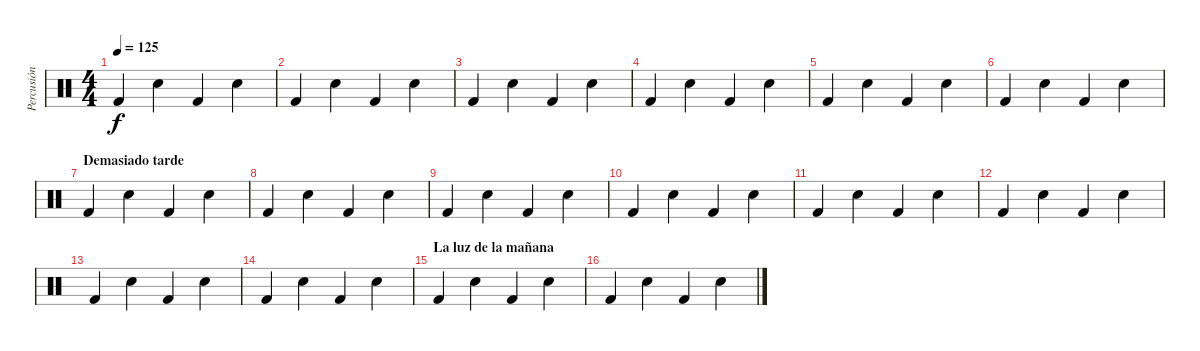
\track ("Percusión" "Percusión") {instrument percussion}
\staff {score}
\articulation defaults
\ts (4 4)
\tempo 125
\clef neutral
\ks c "Kick (hit) 2".4{dy f} "Electric Snare (hit)".4 "Kick (hit) 2".4 "Electric Snare (hit)".4
|
"Kick (hit) 2".4 "Electric Snare (hit)".4 "Kick (hit) 2".4 "Electric Snare (hit)".4 |
"Kick (hit) 2".4 "Electric Snare (hit)".4 "Kick (hit) 2".4 "Electric Snare (hit)".4 |
"Kick (hit) 2".4 "Electric Snare (hit)".4 "Kick (hit) 2".4 "Electric Snare (hit)".4 |
"Kick (hit) 2".4 "Electric Snare (hit)".4 "Kick (hit) 2".4 "Electric Snare (hit)".4 |
"Kick (hit) 2".4 "Electric Snare (hit)".4 "Kick (hit) 2".4 "Electric Snare (hit)".4 |
\section ("" "Demasiado tarde")
"Kick (hit) 2".4 "Electric Snare (hit)".4 "Kick (hit) 2".4 "Electric Snare (hit)".4 |
"Kick (hit) 2".4 "Electric Snare (hit)".4 "Kick (hit) 2".4 "Electric Snare (hit)".4 |
"Kick (hit) 2".4 "Electric Snare (hit)".4 "Kick (hit) 2".4 "Electric Snare (hit)".4 |
"Kick (hit) 2".4 "Electric Snare (hit)".4 "Kick (hit) 2".4 "Electric Snare (hit)".4 |
"Kick (hit) 2".4 "Electric Snare (hit)".4 "Kick (hit) 2".4 "Electric Snare (hit)".4 |
"Kick (hit) 2".4 "Electric Snare (hit)".4 "Kick (hit) 2".4 "Electric Snare (hit)".4 |
"Kick (hit) 2".4 "Electric Snare (hit)".4 "Kick (hit) 2".4 "Electric Snare (hit)".4 |
"Kick (hit) 2".4 "Electric Snare (hit)".4 "Kick (hit) 2".4 "Electric Snare (hit)".4 |
\section ("" "La luz de la mañana")
"Kick (hit) 2".4 "Electric Snare (hit)".4 "Kick (hit) 2".4 "Electric Snare (hit)".4 |
"Kick (hit) 2".4 "Electric Snare (hit)".4 "Kick (hit) 2".4 "Electric Snare (hit)".4
